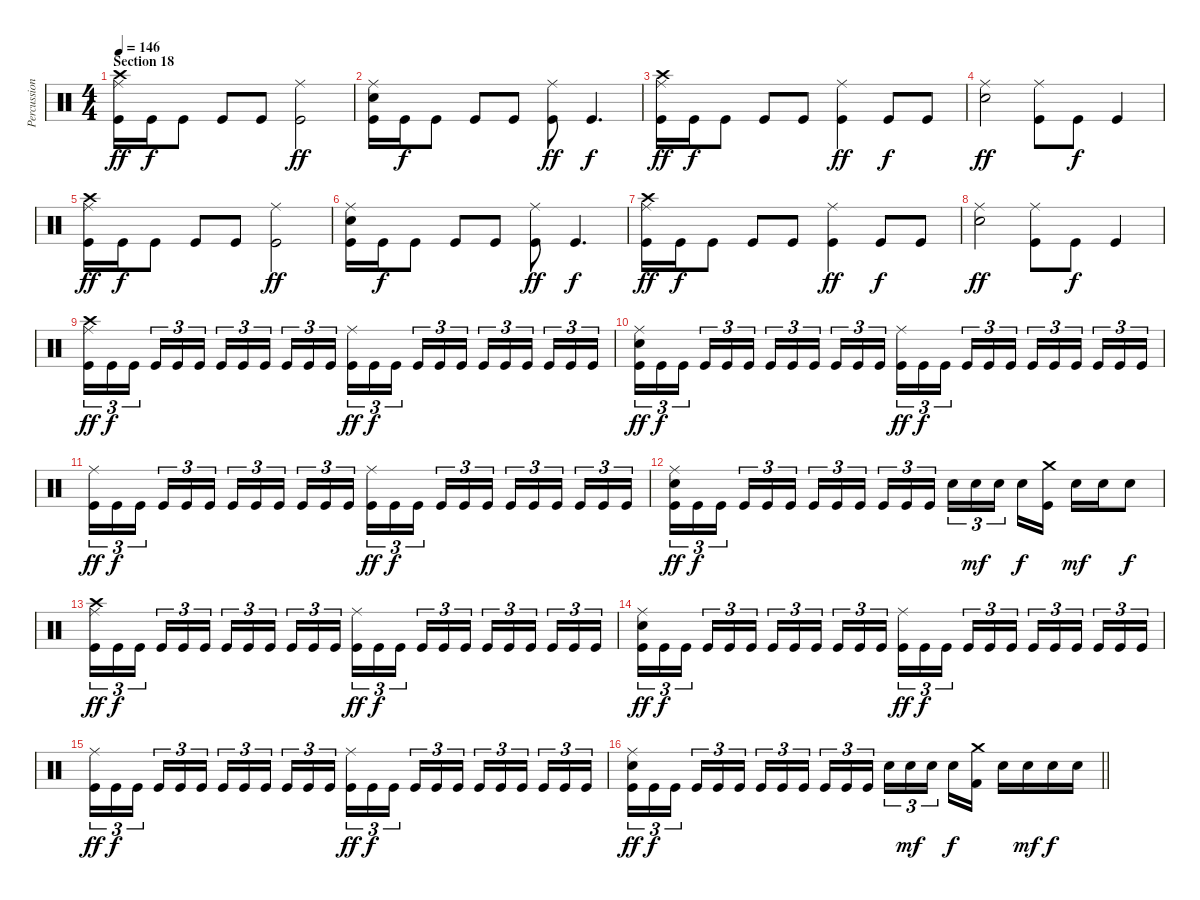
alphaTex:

\track ("Percussion" "Percussion") {instrument percussion}
\staff {score}
\articulation defaults
\ts (4 4)
\section ("" "Section 18")
\tempo 146
\clef neutral
\ks c
("Crash high (hit)" "Ride (middle)" "Kick (hit)").16{dy ff} "Kick (hit)".16{dy f} "Kick (hit)".8 "Kick (hit)".8 "Kick (hit)".8 ("Ride (middle)" "Kick (hit)").2{dy ff} |
("Ride (middle)" "Electric Snare (hit)" "Kick (hit)").16 "Kick (hit)".16{dy f} "Kick (hit)".8 "Kick (hit)".8 "Kick (hit)".8 ("Ride (middle)" "Kick (hit)").8{dy ff} "Kick (hit)".4{d dy f} |
("Crash high (hit)" "Ride (middle)" "Kick (hit)").16{dy ff} "Kick (hit)".16{dy f} "Kick (hit)".8 "Kick (hit)".8 "Kick (hit)".8 ("Ride (middle)" "Kick (hit)").4{dy ff} "Kick (hit)".8{dy f} "Kick (hit)".8 |
("Ride (middle)" "Electric Snare (hit)").2{dy ff} ("Ride (middle)" "Kick (hit)").8 "Kick (hit)".8{dy f} "Kick (hit)".4 |
("Crash high (hit)" "Ride (middle)" "Kick (hit)").16{dy ff} "Kick (hit)".16{dy f} "Kick (hit)".8 "Kick (hit)".8 "Kick (hit)".8 ("Ride (middle)" "Kick (hit)").2{dy ff} |
("Ride (middle)" "Electric Snare (hit)" "Kick (hit)").16 "Kick (hit)".16{dy f} "Kick (hit)".8 "Kick (hit)".8 "Kick (hit)".8 ("Ride (middle)" "Kick (hit)").8{dy ff} "Kick (hit)".4{d dy f} |
("Crash high (hit)" "Ride (middle)" "Kick (hit)").16{dy ff} "Kick (hit)".16{dy f} "Kick (hit)".8 "Kick (hit)".8 "Kick (hit)".8 ("Ride (middle)" "Kick (hit)").4{dy ff} "Kick (hit)".8{dy f} "Kick (hit)".8 |
("Ride (middle)" "Electric Snare (hit)").2{dy ff} ("Ride (middle)" "Kick (hit)").8 "Kick (hit)".8{dy f} "Kick (hit)".4 |
("Crash high (hit)" "Ride (middle)" "Kick (hit)").16{tu (3 2) dy ff} "Kick (hit)".16{tu (3 2) dy f} "Kick (hit)".16{tu (3 2) beam splitsecondary} "Kick (hit)".16{tu (3 2)} "Kick (hit)".16{tu (3 2)} "Kick (hit)".16{tu (3 2)} "Kick (hit)".16{tu (3 2)} "Kick (hit)".16{tu (3 2)} "Kick (hit)".16{tu (3 2) beam splitsecondary} "Kick (hit)".16{tu (3 2)} "Kick (hit)".16{tu (3 2)} "Kick (hit)".16{tu (3 2)} ("Ride (middle)" "Kick (hit)").16{tu (3 2) dy ff} "Kick (hit)".16{tu (3 2) dy f} "Kick (hit)".16{tu (3 2) beam splitsecondary} "Kick (hit)".16{tu (3 2)} "Kick (hit)".16{tu (3 2)} "Kick (hit)".16{tu (3 2)} "Kick (hit)".16{tu (3 2)} "Kick (hit)".16{tu (3 2)} "Kick (hit)".16{tu (3 2) beam splitsecondary} "Kick (hit)".16{tu (3 2)} "Kick (hit)".16{tu (3 2)} "Kick (hit)".16{tu (3 2)} |
("Ride (middle)" "Electric Snare (hit)" "Kick (hit)").16{tu (3 2) dy ff} "Kick (hit)".16{tu (3 2) dy f} "Kick (hit)".16{tu (3 2) beam splitsecondary} "Kick (hit)".16{tu (3 2)} "Kick (hit)".16{tu (3 2)} "Kick (hit)".16{tu (3 2)} "Kick (hit)".16{tu (3 2)} "Kick (hit)".16{tu (3 2)} "Kick (hit)".16{tu (3 2) beam splitsecondary} "Kick (hit)".16{tu (3 2)} "Kick (hit)".16{tu (3 2)} "Kick (hit)".16{tu (3 2)} ("Ride (middle)" "Kick (hit)").16{tu (3 2) dy ff} "Kick (hit)".16{tu (3 2) dy f} "Kick (hit)".16{tu (3 2) beam splitsecondary} "Kick (hit)".16{tu (3 2)} "Kick (hit)".16{tu (3 2)} "Kick (hit)".16{tu (3 2)} "Kick (hit)".16{tu (3 2)} "Kick (hit)".16{tu (3 2)} "Kick (hit)".16{tu (3 2) beam splitsecondary} "Kick (hit)".16{tu (3 2)} "Kick (hit)".16{tu (3 2)} "Kick (hit)".16{tu (3 2)} |
("Ride (middle)" "Kick (hit)").16{tu (3 2) dy ff} "Kick (hit)".16{tu (3 2) dy f} "Kick (hit)".16{tu (3 2) beam splitsecondary} "Kick (hit)".16{tu (3 2)} "Kick (hit)".16{tu (3 2)} "Kick (hit)".16{tu (3 2)} "Kick (hit)".16{tu (3 2)} "Kick (hit)".16{tu (3 2)} "Kick (hit)".16{tu (3 2) beam splitsecondary} "Kick (hit)".16{tu (3 2)} "Kick (hit)".16{tu (3 2)} "Kick (hit)".16{tu (3 2)} ("Ride (middle)" "Kick (hit)").16{tu (3 2) dy ff} "Kick (hit)".16{tu (3 2) dy f} "Kick (hit)".16{tu (3 2) beam splitsecondary} "Kick (hit)".16{tu (3 2)} "Kick (hit)".16{tu (3 2)} "Kick (hit)".16{tu (3 2)} "Kick (hit)".16{tu (3 2)} "Kick (hit)".16{tu (3 2)} "Kick (hit)".16{tu (3 2) beam splitsecondary} "Kick (hit)".16{tu (3 2)} "Kick (hit)".16{tu (3 2)} "Kick (hit)".16{tu (3 2)} |
("Ride (middle)" "Electric Snare (hit)" "Kick (hit)").16{tu (3 2) dy ff} "Kick (hit)".16{tu (3 2) dy f} "Kick (hit)".16{tu (3 2) beam splitsecondary} "Kick (hit)".16{tu (3 2)} "Kick (hit)".16{tu (3 2)} "Kick (hit)".16{tu (3 2)} "Kick (hit)".16{tu (3 2)} "Kick (hit)".16{tu (3 2)} "Kick (hit)".16{tu (3 2) beam splitsecondary} "Kick (hit)".16{tu (3 2)} "Kick (hit)".16{tu (3 2)} "Kick (hit)".16{tu (3 2)} "Electric Snare (hit)".16{tu (3 2)} "Electric Snare (hit)".16{tu (3 2) dy mf} "Electric Snare (hit)".16{tu (3 2) beam splitsecondary} "Electric Snare (hit)".16{dy f} ("Crash medium (hit)" "Kick (hit)").16 "Electric Snare (hit)".16{dy mf} "Electric Snare (hit)".16 "Electric Snare (hit)".8{dy f} |
("Crash high (hit)" "Ride (middle)" "Kick (hit)").16{tu (3 2) dy ff} "Kick (hit)".16{tu (3 2) dy f} "Kick (hit)".16{tu (3 2) beam splitsecondary} "Kick (hit)".16{tu (3 2)} "Kick (hit)".16{tu (3 2)} "Kick (hit)".16{tu (3 2)} "Kick (hit)".16{tu (3 2)} "Kick (hit)".16{tu (3 2)} "Kick (hit)".16{tu (3 2) beam splitsecondary} "Kick (hit)".16{tu (3 2)} "Kick (hit)".16{tu (3 2)} "Kick (hit)".16{tu (3 2)} ("Ride (middle)" "Kick (hit)").16{tu (3 2) dy ff} "Kick (hit)".16{tu (3 2) dy f} "Kick (hit)".16{tu (3 2) beam splitsecondary} "Kick (hit)".16{tu (3 2)} "Kick (hit)".16{tu (3 2)} "Kick (hit)".16{tu (3 2)} "Kick (hit)".16{tu (3 2)} "Kick (hit)".16{tu (3 2)} "Kick (hit)".16{tu (3 2) beam splitsecondary} "Kick (hit)".16{tu (3 2)} "Kick (hit)".16{tu (3 2)} "Kick (hit)".16{tu (3 2)} |
("Ride (middle)" "Electric Snare (hit)" "Kick (hit)").16{tu (3 2) dy ff} "Kick (hit)".16{tu (3 2) dy f} "Kick (hit)".16{tu (3 2) beam splitsecondary} "Kick (hit)".16{tu (3 2)} "Kick (hit)".16{tu (3 2)} "Kick (hit)".16{tu (3 2)} "Kick (hit)".16{tu (3 2)} "Kick (hit)".16{tu (3 2)} "Kick (hit)".16{tu (3 2) beam splitsecondary} "Kick (hit)".16{tu (3 2)} "Kick (hit)".16{tu (3 2)} "Kick (hit)".16{tu (3 2)} ("Ride (middle)" "Kick (hit)").16{tu (3 2) dy ff} "Kick (hit)".16{tu (3 2) dy f} "Kick (hit)".16{tu (3 2) beam splitsecondary} "Kick (hit)".16{tu (3 2)} "Kick (hit)".16{tu (3 2)} "Kick (hit)".16{tu (3 2)} "Kick (hit)".16{tu (3 2)} "Kick (hit)".16{tu (3 2)} "Kick (hit)".16{tu (3 2) beam splitsecondary} "Kick (hit)".16{tu (3 2)} "Kick (hit)".16{tu (3 2)} "Kick (hit)".16{tu (3 2)} |
("Ride (middle)" "Kick (hit)").16{tu (3 2) dy ff} "Kick (hit)".16{tu (3 2) dy f} "Kick (hit)".16{tu (3 2) beam splitsecondary} "Kick (hit)".16{tu (3 2)} "Kick (hit)".16{tu (3 2)} "Kick (hit)".16{tu (3 2)} "Kick (hit)".16{tu (3 2)} "Kick (hit)".16{tu (3 2)} "Kick (hit)".16{tu (3 2) beam splitsecondary} "Kick (hit)".16{tu (3 2)} "Kick (hit)".16{tu (3 2)} "Kick (hit)".16{tu (3 2)} ("Ride (middle)" "Kick (hit)").16{tu (3 2) dy ff} "Kick (hit)".16{tu (3 2) dy f} "Kick (hit)".16{tu (3 2) beam splitsecondary} "Kick (hit)".16{tu (3 2)} "Kick (hit)".16{tu (3 2)} "Kick (hit)".16{tu (3 2)} "Kick (hit)".16{tu (3 2)} "Kick (hit)".16{tu (3 2)} "Kick (hit)".16{tu (3 2) beam splitsecondary} "Kick (hit)".16{tu (3 2)} "Kick (hit)".16{tu (3 2)} "Kick (hit)".16{tu (3 2)} |
\barLineRight lightlight
("Ride (middle)" "Electric Snare (hit)" "Kick (hit)").16{tu (3 2) dy ff} "Kick (hit)".16{tu (3 2) dy f} "Kick (hit)".16{tu (3 2) beam splitsecondary} "Kick (hit)".16{tu (3 2)} "Kick (hit)".16{tu (3 2)} "Kick (hit)".16{tu (3 2)} "Kick (hit)".16{tu (3 2)} "Kick (hit)".16{tu (3 2)} "Kick (hit)".16{tu (3 2) beam splitsecondary} "Kick (hit)".16{tu (3 2)} "Kick (hit)".16{tu (3 2)} "Kick (hit)".16{tu (3 2)} "Electric Snare (hit)".16{tu (3 2)} "Electric Snare (hit)".16{tu (3 2) dy mf} "Electric Snare (hit)".16{tu (3 2) beam splitsecondary} "Electric Snare (hit)".16{dy f} ("Crash medium (hit)" "Kick (hit) 2").16 "Electric Snare (hit)".16 "Electric Snare (hit)".16{dy mf} "Electric Snare (hit)".16{dy f} "Electric Snare (hit)".16
